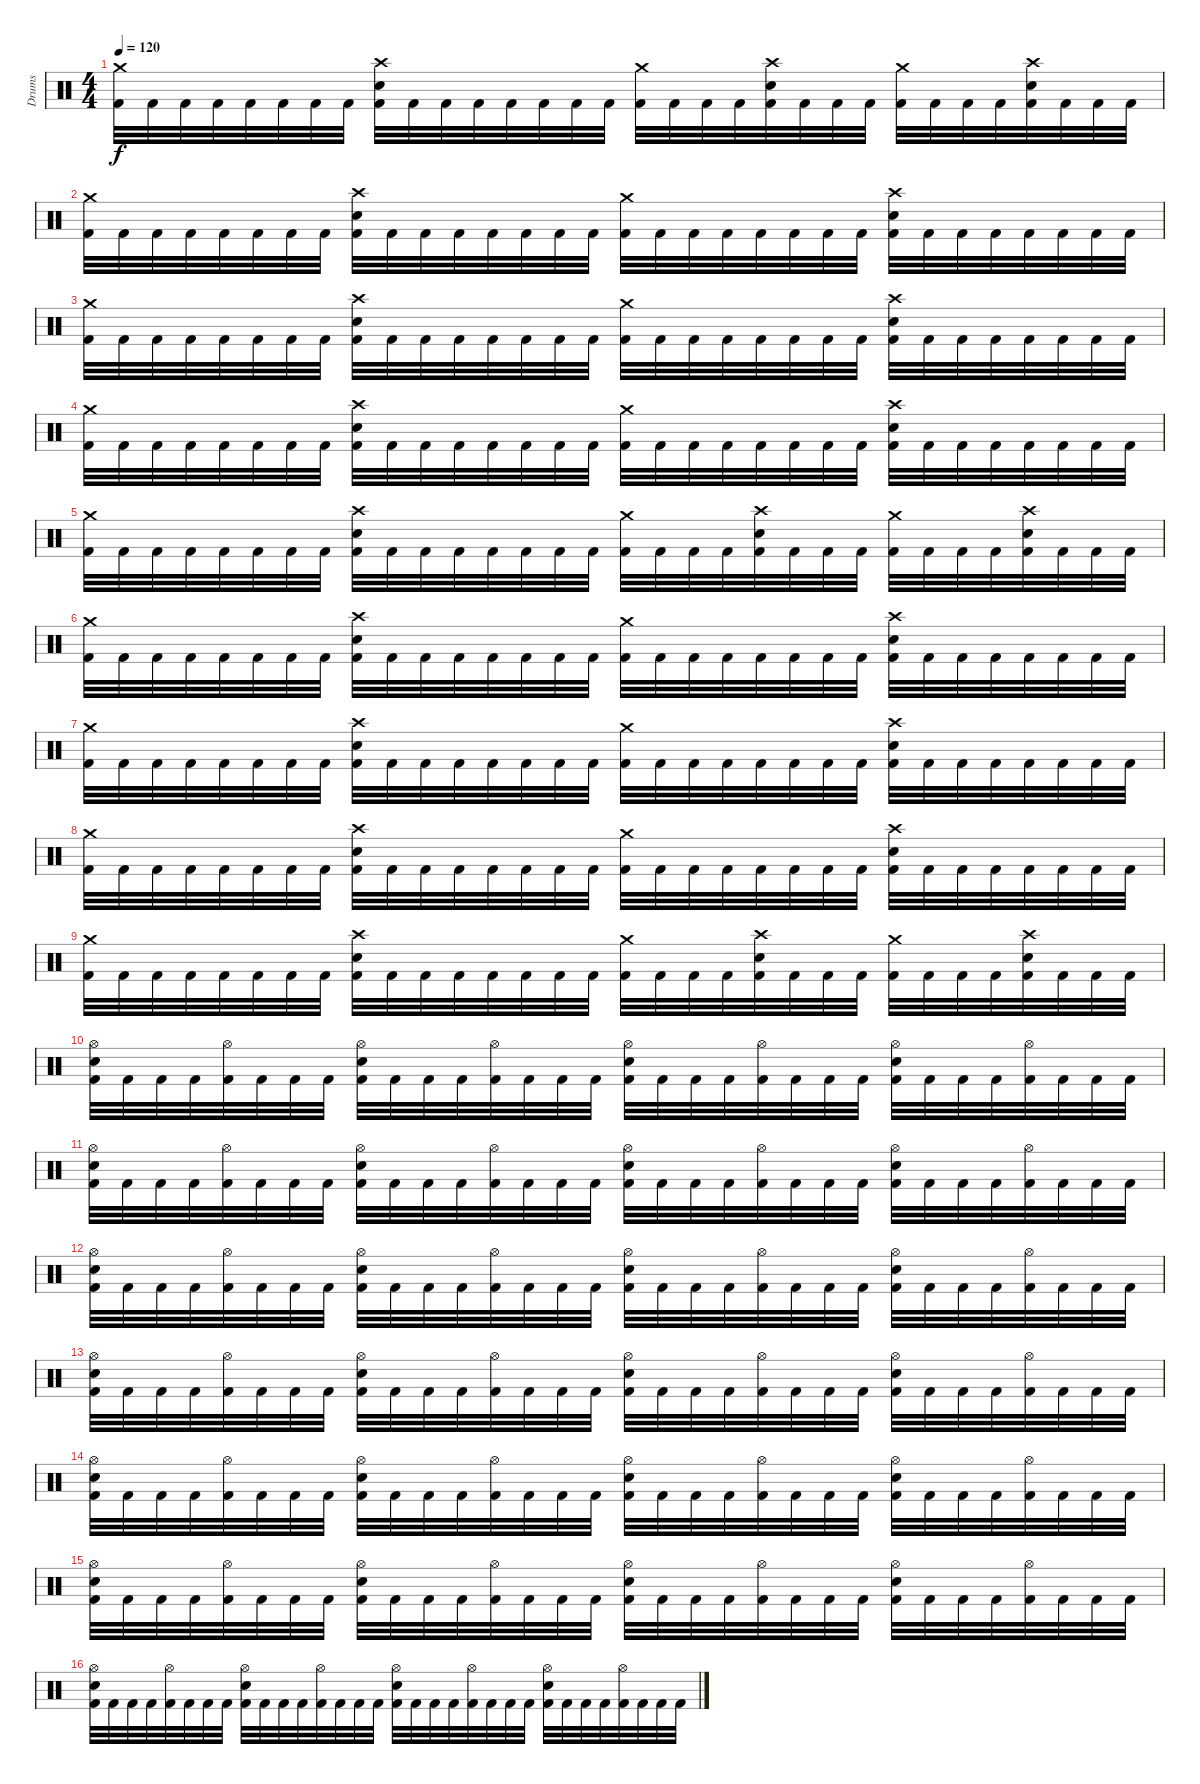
\track ("Drums" "Drums") {instrument percussion}
\staff {score}
\articulation defaults
\ts (4 4)
\tempo 120
\clef neutral
\ks c
("Kick (hit) 2" "Crash medium (hit)").32{dy f} "Kick (hit) 2".32 "Kick (hit) 2".32 "Kick (hit) 2".32 "Kick (hit) 2".32 "Kick (hit) 2".32 "Kick (hit) 2".32 "Kick (hit) 2".32 ("Kick (hit) 2" "Electric Snare (hit)" "Crash high (hit)").32 "Kick (hit) 2".32 "Kick (hit) 2".32 "Kick (hit) 2".32 "Kick (hit) 2".32 "Kick (hit) 2".32 "Kick (hit) 2".32 "Kick (hit) 2".32 ("Kick (hit) 2" "Crash medium (hit)").32 "Kick (hit) 2".32 "Kick (hit) 2".32 "Kick (hit) 2".32 ("Kick (hit) 2" "Electric Snare (hit)" "Crash high (hit)").32 "Kick (hit) 2".32 "Kick (hit) 2".32 "Kick (hit) 2".32 ("Kick (hit) 2" "Crash medium (hit)").32 "Kick (hit) 2".32 "Kick (hit) 2".32 "Kick (hit) 2".32 ("Kick (hit) 2" "Electric Snare (hit)" "Crash high (hit)").32 "Kick (hit) 2".32 "Kick (hit) 2".32 "Kick (hit) 2".32 |
("Kick (hit) 2" "Crash medium (hit)").32 "Kick (hit) 2".32 "Kick (hit) 2".32 "Kick (hit) 2".32 "Kick (hit) 2".32 "Kick (hit) 2".32 "Kick (hit) 2".32 "Kick (hit) 2".32 ("Kick (hit) 2" "Electric Snare (hit)" "Crash high (hit)").32 "Kick (hit) 2".32 "Kick (hit) 2".32 "Kick (hit) 2".32 "Kick (hit) 2".32 "Kick (hit) 2".32 "Kick (hit) 2".32 "Kick (hit) 2".32 ("Kick (hit) 2" "Crash medium (hit)").32 "Kick (hit) 2".32 "Kick (hit) 2".32 "Kick (hit) 2".32 "Kick (hit) 2".32 "Kick (hit) 2".32 "Kick (hit) 2".32 "Kick (hit) 2".32 ("Kick (hit) 2" "Electric Snare (hit)" "Crash high (hit)").32 "Kick (hit) 2".32 "Kick (hit) 2".32 "Kick (hit) 2".32 "Kick (hit) 2".32 "Kick (hit) 2".32 "Kick (hit) 2".32 "Kick (hit) 2".32 |
("Kick (hit) 2" "Crash medium (hit)").32 "Kick (hit) 2".32 "Kick (hit) 2".32 "Kick (hit) 2".32 "Kick (hit) 2".32 "Kick (hit) 2".32 "Kick (hit) 2".32 "Kick (hit) 2".32 ("Kick (hit) 2" "Electric Snare (hit)" "Crash high (hit)").32 "Kick (hit) 2".32 "Kick (hit) 2".32 "Kick (hit) 2".32 "Kick (hit) 2".32 "Kick (hit) 2".32 "Kick (hit) 2".32 "Kick (hit) 2".32 ("Kick (hit) 2" "Crash medium (hit)").32 "Kick (hit) 2".32 "Kick (hit) 2".32 "Kick (hit) 2".32 "Kick (hit) 2".32 "Kick (hit) 2".32 "Kick (hit) 2".32 "Kick (hit) 2".32 ("Kick (hit) 2" "Electric Snare (hit)" "Crash high (hit)").32 "Kick (hit) 2".32 "Kick (hit) 2".32 "Kick (hit) 2".32 "Kick (hit) 2".32 "Kick (hit) 2".32 "Kick (hit) 2".32 "Kick (hit) 2".32 |
("Kick (hit) 2" "Crash medium (hit)").32 "Kick (hit) 2".32 "Kick (hit) 2".32 "Kick (hit) 2".32 "Kick (hit) 2".32 "Kick (hit) 2".32 "Kick (hit) 2".32 "Kick (hit) 2".32 ("Kick (hit) 2" "Electric Snare (hit)" "Crash high (hit)").32 "Kick (hit) 2".32 "Kick (hit) 2".32 "Kick (hit) 2".32 "Kick (hit) 2".32 "Kick (hit) 2".32 "Kick (hit) 2".32 "Kick (hit) 2".32 ("Kick (hit) 2" "Crash medium (hit)").32 "Kick (hit) 2".32 "Kick (hit) 2".32 "Kick (hit) 2".32 "Kick (hit) 2".32 "Kick (hit) 2".32 "Kick (hit) 2".32 "Kick (hit) 2".32 ("Kick (hit) 2" "Electric Snare (hit)" "Crash high (hit)").32 "Kick (hit) 2".32 "Kick (hit) 2".32 "Kick (hit) 2".32 "Kick (hit) 2".32 "Kick (hit) 2".32 "Kick (hit) 2".32 "Kick (hit) 2".32 |
("Kick (hit) 2" "Crash medium (hit)").32 "Kick (hit) 2".32 "Kick (hit) 2".32 "Kick (hit) 2".32 "Kick (hit) 2".32 "Kick (hit) 2".32 "Kick (hit) 2".32 "Kick (hit) 2".32 ("Kick (hit) 2" "Electric Snare (hit)" "Crash high (hit)").32 "Kick (hit) 2".32 "Kick (hit) 2".32 "Kick (hit) 2".32 "Kick (hit) 2".32 "Kick (hit) 2".32 "Kick (hit) 2".32 "Kick (hit) 2".32 ("Kick (hit) 2" "Crash medium (hit)").32 "Kick (hit) 2".32 "Kick (hit) 2".32 "Kick (hit) 2".32 ("Kick (hit) 2" "Electric Snare (hit)" "Crash high (hit)").32 "Kick (hit) 2".32 "Kick (hit) 2".32 "Kick (hit) 2".32 ("Kick (hit) 2" "Crash medium (hit)").32 "Kick (hit) 2".32 "Kick (hit) 2".32 "Kick (hit) 2".32 ("Kick (hit) 2" "Electric Snare (hit)" "Crash high (hit)").32 "Kick (hit) 2".32 "Kick (hit) 2".32 "Kick (hit) 2".32 |
("Kick (hit) 2" "Crash medium (hit)").32 "Kick (hit) 2".32 "Kick (hit) 2".32 "Kick (hit) 2".32 "Kick (hit) 2".32 "Kick (hit) 2".32 "Kick (hit) 2".32 "Kick (hit) 2".32 ("Kick (hit) 2" "Electric Snare (hit)" "Crash high (hit)").32 "Kick (hit) 2".32 "Kick (hit) 2".32 "Kick (hit) 2".32 "Kick (hit) 2".32 "Kick (hit) 2".32 "Kick (hit) 2".32 "Kick (hit) 2".32 ("Kick (hit) 2" "Crash medium (hit)").32 "Kick (hit) 2".32 "Kick (hit) 2".32 "Kick (hit) 2".32 "Kick (hit) 2".32 "Kick (hit) 2".32 "Kick (hit) 2".32 "Kick (hit) 2".32 ("Kick (hit) 2" "Electric Snare (hit)" "Crash high (hit)").32 "Kick (hit) 2".32 "Kick (hit) 2".32 "Kick (hit) 2".32 "Kick (hit) 2".32 "Kick (hit) 2".32 "Kick (hit) 2".32 "Kick (hit) 2".32 |
("Kick (hit) 2" "Crash medium (hit)").32 "Kick (hit) 2".32 "Kick (hit) 2".32 "Kick (hit) 2".32 "Kick (hit) 2".32 "Kick (hit) 2".32 "Kick (hit) 2".32 "Kick (hit) 2".32 ("Kick (hit) 2" "Electric Snare (hit)" "Crash high (hit)").32 "Kick (hit) 2".32 "Kick (hit) 2".32 "Kick (hit) 2".32 "Kick (hit) 2".32 "Kick (hit) 2".32 "Kick (hit) 2".32 "Kick (hit) 2".32 ("Kick (hit) 2" "Crash medium (hit)").32 "Kick (hit) 2".32 "Kick (hit) 2".32 "Kick (hit) 2".32 "Kick (hit) 2".32 "Kick (hit) 2".32 "Kick (hit) 2".32 "Kick (hit) 2".32 ("Kick (hit) 2" "Electric Snare (hit)" "Crash high (hit)").32 "Kick (hit) 2".32 "Kick (hit) 2".32 "Kick (hit) 2".32 "Kick (hit) 2".32 "Kick (hit) 2".32 "Kick (hit) 2".32 "Kick (hit) 2".32 |
("Kick (hit) 2" "Crash medium (hit)").32 "Kick (hit) 2".32 "Kick (hit) 2".32 "Kick (hit) 2".32 "Kick (hit) 2".32 "Kick (hit) 2".32 "Kick (hit) 2".32 "Kick (hit) 2".32 ("Kick (hit) 2" "Electric Snare (hit)" "Crash high (hit)").32 "Kick (hit) 2".32 "Kick (hit) 2".32 "Kick (hit) 2".32 "Kick (hit) 2".32 "Kick (hit) 2".32 "Kick (hit) 2".32 "Kick (hit) 2".32 ("Kick (hit) 2" "Crash medium (hit)").32 "Kick (hit) 2".32 "Kick (hit) 2".32 "Kick (hit) 2".32 "Kick (hit) 2".32 "Kick (hit) 2".32 "Kick (hit) 2".32 "Kick (hit) 2".32 ("Kick (hit) 2" "Electric Snare (hit)" "Crash high (hit)").32 "Kick (hit) 2".32 "Kick (hit) 2".32 "Kick (hit) 2".32 "Kick (hit) 2".32 "Kick (hit) 2".32 "Kick (hit) 2".32 "Kick (hit) 2".32 |
("Kick (hit) 2" "Crash medium (hit)").32 "Kick (hit) 2".32 "Kick (hit) 2".32 "Kick (hit) 2".32 "Kick (hit) 2".32 "Kick (hit) 2".32 "Kick (hit) 2".32 "Kick (hit) 2".32 ("Kick (hit) 2" "Electric Snare (hit)" "Crash high (hit)").32 "Kick (hit) 2".32 "Kick (hit) 2".32 "Kick (hit) 2".32 "Kick (hit) 2".32 "Kick (hit) 2".32 "Kick (hit) 2".32 "Kick (hit) 2".32 ("Kick (hit) 2" "Crash medium (hit)").32 "Kick (hit) 2".32 "Kick (hit) 2".32 "Kick (hit) 2".32 ("Kick (hit) 2" "Electric Snare (hit)" "Crash high (hit)").32 "Kick (hit) 2".32 "Kick (hit) 2".32 "Kick (hit) 2".32 ("Kick (hit) 2" "Crash medium (hit)").32 "Kick (hit) 2".32 "Kick (hit) 2".32 "Kick (hit) 2".32 ("Kick (hit) 2" "Electric Snare (hit)" "Crash high (hit)").32 "Kick (hit) 2".32 "Kick (hit) 2".32 "Kick (hit) 2".32 |
("Kick (hit) 2" "Electric Snare (hit)" "Hi-Hat (open)").32 "Kick (hit) 2".32 "Kick (hit) 2".32 "Kick (hit) 2".32 ("Kick (hit) 2" "Hi-Hat (open)").32 "Kick (hit) 2".32 "Kick (hit) 2".32 "Kick (hit) 2".32 ("Kick (hit) 2" "Electric Snare (hit)" "Hi-Hat (open)").32 "Kick (hit) 2".32 "Kick (hit) 2".32 "Kick (hit) 2".32 ("Kick (hit) 2" "Hi-Hat (open)").32 "Kick (hit) 2".32 "Kick (hit) 2".32 "Kick (hit) 2".32 ("Kick (hit) 2" "Electric Snare (hit)" "Hi-Hat (open)").32 "Kick (hit) 2".32 "Kick (hit) 2".32 "Kick (hit) 2".32 ("Kick (hit) 2" "Hi-Hat (open)").32 "Kick (hit) 2".32 "Kick (hit) 2".32 "Kick (hit) 2".32 ("Kick (hit) 2" "Electric Snare (hit)" "Hi-Hat (open)").32 "Kick (hit) 2".32 "Kick (hit) 2".32 "Kick (hit) 2".32 ("Kick (hit) 2" "Hi-Hat (open)").32 "Kick (hit) 2".32 "Kick (hit) 2".32 "Kick (hit) 2".32 |
("Kick (hit) 2" "Electric Snare (hit)" "Hi-Hat (open)").32 "Kick (hit) 2".32 "Kick (hit) 2".32 "Kick (hit) 2".32 ("Kick (hit) 2" "Hi-Hat (open)").32 "Kick (hit) 2".32 "Kick (hit) 2".32 "Kick (hit) 2".32 ("Kick (hit) 2" "Electric Snare (hit)" "Hi-Hat (open)").32 "Kick (hit) 2".32 "Kick (hit) 2".32 "Kick (hit) 2".32 ("Kick (hit) 2" "Hi-Hat (open)").32 "Kick (hit) 2".32 "Kick (hit) 2".32 "Kick (hit) 2".32 ("Kick (hit) 2" "Electric Snare (hit)" "Hi-Hat (open)").32 "Kick (hit) 2".32 "Kick (hit) 2".32 "Kick (hit) 2".32 ("Kick (hit) 2" "Hi-Hat (open)").32 "Kick (hit) 2".32 "Kick (hit) 2".32 "Kick (hit) 2".32 ("Kick (hit) 2" "Electric Snare (hit)" "Hi-Hat (open)").32 "Kick (hit) 2".32 "Kick (hit) 2".32 "Kick (hit) 2".32 ("Kick (hit) 2" "Hi-Hat (open)").32 "Kick (hit) 2".32 "Kick (hit) 2".32 "Kick (hit) 2".32 |
("Kick (hit) 2" "Electric Snare (hit)" "Hi-Hat (open)").32 "Kick (hit) 2".32 "Kick (hit) 2".32 "Kick (hit) 2".32 ("Kick (hit) 2" "Hi-Hat (open)").32 "Kick (hit) 2".32 "Kick (hit) 2".32 "Kick (hit) 2".32 ("Kick (hit) 2" "Electric Snare (hit)" "Hi-Hat (open)").32 "Kick (hit) 2".32 "Kick (hit) 2".32 "Kick (hit) 2".32 ("Kick (hit) 2" "Hi-Hat (open)").32 "Kick (hit) 2".32 "Kick (hit) 2".32 "Kick (hit) 2".32 ("Kick (hit) 2" "Electric Snare (hit)" "Hi-Hat (open)").32 "Kick (hit) 2".32 "Kick (hit) 2".32 "Kick (hit) 2".32 ("Kick (hit) 2" "Hi-Hat (open)").32 "Kick (hit) 2".32 "Kick (hit) 2".32 "Kick (hit) 2".32 ("Kick (hit) 2" "Electric Snare (hit)" "Hi-Hat (open)").32 "Kick (hit) 2".32 "Kick (hit) 2".32 "Kick (hit) 2".32 ("Kick (hit) 2" "Hi-Hat (open)").32 "Kick (hit) 2".32 "Kick (hit) 2".32 "Kick (hit) 2".32 |
("Kick (hit) 2" "Electric Snare (hit)" "Hi-Hat (open)").32 "Kick (hit) 2".32 "Kick (hit) 2".32 "Kick (hit) 2".32 ("Kick (hit) 2" "Hi-Hat (open)").32 "Kick (hit) 2".32 "Kick (hit) 2".32 "Kick (hit) 2".32 ("Kick (hit) 2" "Electric Snare (hit)" "Hi-Hat (open)").32 "Kick (hit) 2".32 "Kick (hit) 2".32 "Kick (hit) 2".32 ("Kick (hit) 2" "Hi-Hat (open)").32 "Kick (hit) 2".32 "Kick (hit) 2".32 "Kick (hit) 2".32 ("Kick (hit) 2" "Electric Snare (hit)" "Hi-Hat (open)").32 "Kick (hit) 2".32 "Kick (hit) 2".32 "Kick (hit) 2".32 ("Kick (hit) 2" "Hi-Hat (open)").32 "Kick (hit) 2".32 "Kick (hit) 2".32 "Kick (hit) 2".32 ("Kick (hit) 2" "Electric Snare (hit)" "Hi-Hat (open)").32 "Kick (hit) 2".32 "Kick (hit) 2".32 "Kick (hit) 2".32 ("Kick (hit) 2" "Hi-Hat (open)").32 "Kick (hit) 2".32 "Kick (hit) 2".32 "Kick (hit) 2".32 |
("Kick (hit) 2" "Electric Snare (hit)" "Hi-Hat (open)").32 "Kick (hit) 2".32 "Kick (hit) 2".32 "Kick (hit) 2".32 ("Kick (hit) 2" "Hi-Hat (open)").32 "Kick (hit) 2".32 "Kick (hit) 2".32 "Kick (hit) 2".32 ("Kick (hit) 2" "Electric Snare (hit)" "Hi-Hat (open)").32 "Kick (hit) 2".32 "Kick (hit) 2".32 "Kick (hit) 2".32 ("Kick (hit) 2" "Hi-Hat (open)").32 "Kick (hit) 2".32 "Kick (hit) 2".32 "Kick (hit) 2".32 ("Kick (hit) 2" "Electric Snare (hit)" "Hi-Hat (open)").32 "Kick (hit) 2".32 "Kick (hit) 2".32 "Kick (hit) 2".32 ("Kick (hit) 2" "Hi-Hat (open)").32 "Kick (hit) 2".32 "Kick (hit) 2".32 "Kick (hit) 2".32 ("Kick (hit) 2" "Electric Snare (hit)" "Hi-Hat (open)").32 "Kick (hit) 2".32 "Kick (hit) 2".32 "Kick (hit) 2".32 ("Kick (hit) 2" "Hi-Hat (open)").32 "Kick (hit) 2".32 "Kick (hit) 2".32 "Kick (hit) 2".32 |
("Kick (hit) 2" "Electric Snare (hit)" "Hi-Hat (open)").32 "Kick (hit) 2".32 "Kick (hit) 2".32 "Kick (hit) 2".32 ("Kick (hit) 2" "Hi-Hat (open)").32 "Kick (hit) 2".32 "Kick (hit) 2".32 "Kick (hit) 2".32 ("Kick (hit) 2" "Electric Snare (hit)" "Hi-Hat (open)").32 "Kick (hit) 2".32 "Kick (hit) 2".32 "Kick (hit) 2".32 ("Kick (hit) 2" "Hi-Hat (open)").32 "Kick (hit) 2".32 "Kick (hit) 2".32 "Kick (hit) 2".32 ("Kick (hit) 2" "Electric Snare (hit)" "Hi-Hat (open)").32 "Kick (hit) 2".32 "Kick (hit) 2".32 "Kick (hit) 2".32 ("Kick (hit) 2" "Hi-Hat (open)").32 "Kick (hit) 2".32 "Kick (hit) 2".32 "Kick (hit) 2".32 ("Kick (hit) 2" "Electric Snare (hit)" "Hi-Hat (open)").32 "Kick (hit) 2".32 "Kick (hit) 2".32 "Kick (hit) 2".32 ("Kick (hit) 2" "Hi-Hat (open)").32 "Kick (hit) 2".32 "Kick (hit) 2".32 "Kick (hit) 2".32 |
("Kick (hit) 2" "Electric Snare (hit)" "Hi-Hat (open)").32 "Kick (hit) 2".32 "Kick (hit) 2".32 "Kick (hit) 2".32 ("Kick (hit) 2" "Hi-Hat (open)").32 "Kick (hit) 2".32 "Kick (hit) 2".32 "Kick (hit) 2".32 ("Kick (hit) 2" "Electric Snare (hit)" "Hi-Hat (open)").32 "Kick (hit) 2".32 "Kick (hit) 2".32 "Kick (hit) 2".32 ("Kick (hit) 2" "Hi-Hat (open)").32 "Kick (hit) 2".32 "Kick (hit) 2".32 "Kick (hit) 2".32 ("Kick (hit) 2" "Electric Snare (hit)" "Hi-Hat (open)").32 "Kick (hit) 2".32 "Kick (hit) 2".32 "Kick (hit) 2".32 ("Kick (hit) 2" "Hi-Hat (open)").32 "Kick (hit) 2".32 "Kick (hit) 2".32 "Kick (hit) 2".32 ("Kick (hit) 2" "Electric Snare (hit)" "Hi-Hat (open)").32 "Kick (hit) 2".32 "Kick (hit) 2".32 "Kick (hit) 2".32 ("Kick (hit) 2" "Hi-Hat (open)").32 "Kick (hit) 2".32 "Kick (hit) 2".32 "Kick (hit) 2".32
